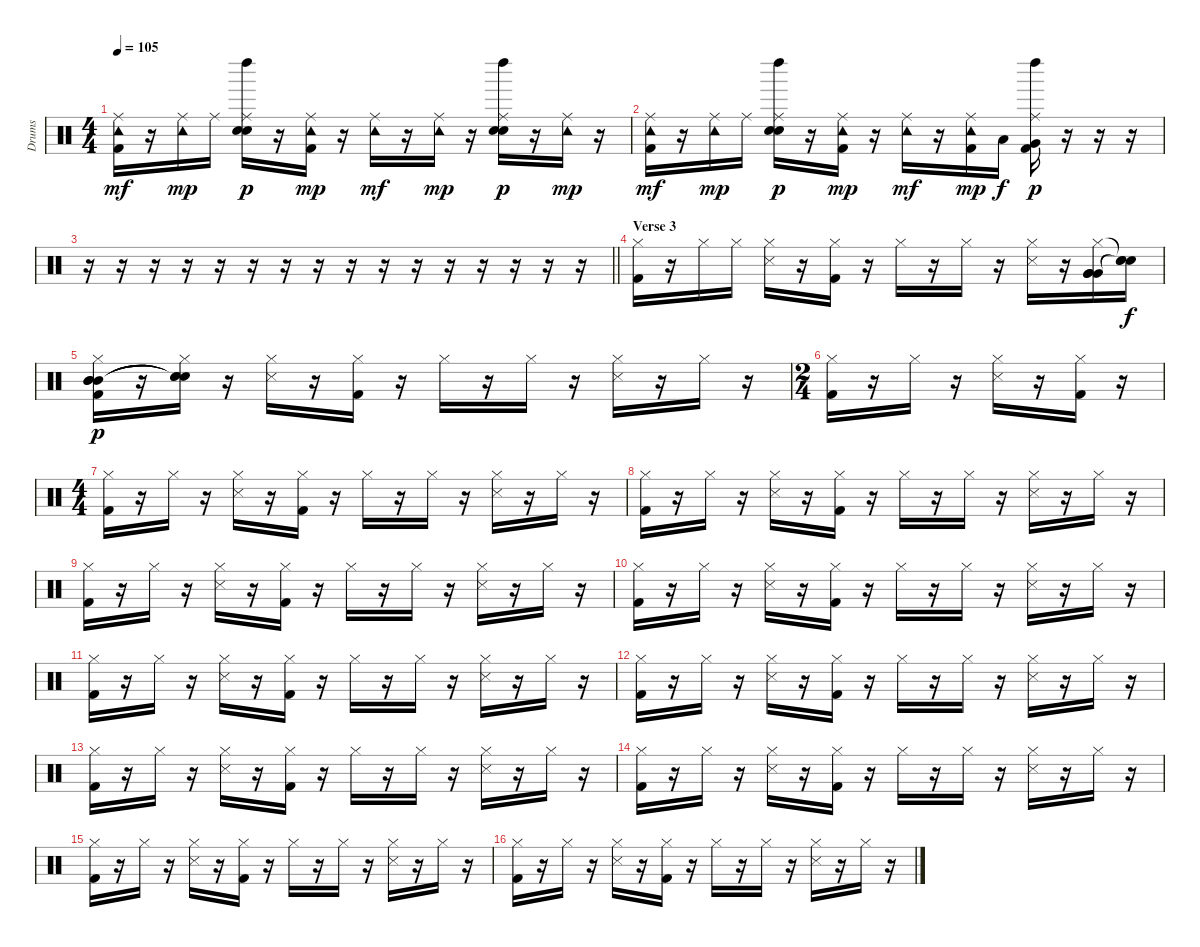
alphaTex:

\track ("Drums" "Drums") {instrument percussion}
\staff {score}
\articulation defaults
\ts (4 4)
\tempo 105
\clef neutral
\ks c
("Ride (middle)" "Tambourine (hit)" "Kick (hit) 2").16{dy mf} r.16 ("Ride (middle)" "Tambourine (hit)").16{dy mp} "Ride (middle)".16 ("Ride (middle)" "Electric Snare (hit)" "Snare (hit) 2" "Left Maraca (hit)").16{dy p} r.16 ("Ride (middle)" "Tambourine (hit)" "Kick (hit) 2").16{dy mp} r.16 ("Ride (middle)" "Tambourine (hit)").16{dy mf} r.16 ("Ride (middle)" "Tambourine (hit)").16{dy mp} r.16 ("Ride (middle)" "Electric Snare (hit)" "Snare (hit) 2" "Left Maraca (hit)").16{dy p} r.16 ("Ride (middle)" "Tambourine (hit)").16{dy mp} r.16 |
("Ride (middle)" "Tambourine (hit)" "Kick (hit) 2").16{dy mf} r.16 ("Ride (middle)" "Tambourine (hit)").16{dy mp} "Ride (middle)".16 ("Ride (middle)" "Electric Snare (hit)" "Snare (hit) 2" "Left Maraca (hit)").16{dy p} r.16 ("Ride (middle)" "Tambourine (hit)" "Kick (hit) 2").16{dy mp} r.16 ("Ride (middle)" "Tambourine (hit)").16{dy mf} r.16 ("Ride (middle)" "Tambourine (hit)" "Kick (hit) 2").16{dy mp} "Low Tom (hit)".16{dy f} ("Ride (middle)" "Very Low Tom (hit)" "Left Maraca (hit)" "Kick (hit) 2").16{dy p} r.16 r.16 r.16 |
\barLineRight lightlight
r.16 r.16 r.16 r.16 r.16 r.16 r.16 r.16 r.16 r.16 r.16 r.16 r.16 r.16 r.16 r.16 |
\section ("" "Verse 3")
("Hi-Hat (closed)" "Kick (hit) 2").16 r.16 "Hi-Hat (closed)".16 "Hi-Hat (closed)".16 ("Hi-Hat (closed)" "Snare (side stick) 3").16 r.16 ("Hi-Hat (closed)" "Kick (hit) 2").16 r.16 "Hi-Hat (closed)".16 r.16 "Hi-Hat (closed)".16 r.16 ("Hi-Hat (closed)" "Snare (side stick) 3").16 r.16 ("Hi-Hat (closed)" "Very Low Tom (hit)" "Very Low Tom (hit)" "Very Low Tom (hit)").16 ("Snare (hit)"{t} "Snare (hit)"{t} "Snare (hit)"{t}).16{dy f} |
("Hi-Hat (closed)" "Mid Tom (hit)" "Mid Tom (hit)" "Mid Tom (hit)" "Kick (hit) 2").16{dy p} r.16 ("Hi-Hat (closed)" "Snare (hit)"{t} "Snare (hit)"{t} "Snare (hit)"{t}).16 r.16 ("Hi-Hat (closed)" "Snare (side stick) 3").16 r.16 ("Hi-Hat (closed)" "Kick (hit) 2").16 r.16 "Hi-Hat (closed)".16 r.16 "Hi-Hat (closed)".16 r.16 ("Hi-Hat (closed)" "Snare (side stick) 3").16 r.16 "Hi-Hat (closed)".16 r.16 |
\ts (2 4)
("Hi-Hat (closed)" "Kick (hit) 2").16 r.16 "Hi-Hat (closed)".16 r.16 ("Hi-Hat (closed)" "Snare (side stick) 3").16 r.16 ("Hi-Hat (closed)" "Kick (hit) 2").16 r.16 |
\ts (4 4)
("Hi-Hat (closed)" "Kick (hit) 2").16 r.16 "Hi-Hat (closed)".16 r.16 ("Hi-Hat (closed)" "Snare (side stick) 3").16 r.16 ("Hi-Hat (closed)" "Kick (hit) 2").16 r.16 "Hi-Hat (closed)".16 r.16 "Hi-Hat (closed)".16 r.16 ("Hi-Hat (closed)" "Snare (side stick) 3").16 r.16 "Hi-Hat (closed)".16 r.16 |
("Hi-Hat (closed)" "Kick (hit) 2").16 r.16 "Hi-Hat (closed)".16 r.16 ("Hi-Hat (closed)" "Snare (side stick) 3").16 r.16 ("Hi-Hat (closed)" "Kick (hit) 2").16 r.16 "Hi-Hat (closed)".16 r.16 "Hi-Hat (closed)".16 r.16 ("Hi-Hat (closed)" "Snare (side stick) 3").16 r.16 "Hi-Hat (closed)".16 r.16 |
("Hi-Hat (closed)" "Kick (hit) 2").16 r.16 "Hi-Hat (closed)".16 r.16 ("Hi-Hat (closed)" "Snare (side stick) 3").16 r.16 ("Hi-Hat (closed)" "Kick (hit) 2").16 r.16 "Hi-Hat (closed)".16 r.16 "Hi-Hat (closed)".16 r.16 ("Hi-Hat (closed)" "Snare (side stick) 3").16 r.16 "Hi-Hat (closed)".16 r.16 |
("Hi-Hat (closed)" "Kick (hit) 2").16 r.16 "Hi-Hat (closed)".16 r.16 ("Hi-Hat (closed)" "Snare (side stick) 3").16 r.16 ("Hi-Hat (closed)" "Kick (hit) 2").16 r.16 "Hi-Hat (closed)".16 r.16 "Hi-Hat (closed)".16 r.16 ("Hi-Hat (closed)" "Snare (side stick) 3").16 r.16 "Hi-Hat (closed)".16 r.16 |
("Hi-Hat (closed)" "Kick (hit) 2").16 r.16 "Hi-Hat (closed)".16 r.16 ("Hi-Hat (closed)" "Snare (side stick) 3").16 r.16 ("Hi-Hat (closed)" "Kick (hit) 2").16 r.16 "Hi-Hat (closed)".16 r.16 "Hi-Hat (closed)".16 r.16 ("Hi-Hat (closed)" "Snare (side stick) 3").16 r.16 "Hi-Hat (closed)".16 r.16 |
("Hi-Hat (closed)" "Kick (hit) 2").16 r.16 "Hi-Hat (closed)".16 r.16 ("Hi-Hat (closed)" "Snare (side stick) 3").16 r.16 ("Hi-Hat (closed)" "Kick (hit) 2").16 r.16 "Hi-Hat (closed)".16 r.16 "Hi-Hat (closed)".16 r.16 ("Hi-Hat (closed)" "Snare (side stick) 3").16 r.16 "Hi-Hat (closed)".16 r.16 |
("Hi-Hat (closed)" "Kick (hit) 2").16 r.16 "Hi-Hat (closed)".16 r.16 ("Hi-Hat (closed)" "Snare (side stick) 3").16 r.16 ("Hi-Hat (closed)" "Kick (hit) 2").16 r.16 "Hi-Hat (closed)".16 r.16 "Hi-Hat (closed)".16 r.16 ("Hi-Hat (closed)" "Snare (side stick) 3").16 r.16 "Hi-Hat (closed)".16 r.16 |
("Hi-Hat (closed)" "Kick (hit) 2").16 r.16 "Hi-Hat (closed)".16 r.16 ("Hi-Hat (closed)" "Snare (side stick) 3").16 r.16 ("Hi-Hat (closed)" "Kick (hit) 2").16 r.16 "Hi-Hat (closed)".16 r.16 "Hi-Hat (closed)".16 r.16 ("Hi-Hat (closed)" "Snare (side stick) 3").16 r.16 "Hi-Hat (closed)".16 r.16 |
("Hi-Hat (closed)" "Kick (hit) 2").16 r.16 "Hi-Hat (closed)".16 r.16 ("Hi-Hat (closed)" "Snare (side stick) 3").16 r.16 ("Hi-Hat (closed)" "Kick (hit) 2").16 r.16 "Hi-Hat (closed)".16 r.16 "Hi-Hat (closed)".16 r.16 ("Hi-Hat (closed)" "Snare (side stick) 3").16 r.16 "Hi-Hat (closed)".16 r.16 |
("Hi-Hat (closed)" "Kick (hit) 2").16 r.16 "Hi-Hat (closed)".16 r.16 ("Hi-Hat (closed)" "Snare (side stick) 3").16 r.16 ("Hi-Hat (closed)" "Kick (hit) 2").16 r.16 "Hi-Hat (closed)".16 r.16 "Hi-Hat (closed)".16 r.16 ("Hi-Hat (closed)" "Snare (side stick) 3").16 r.16 "Hi-Hat (closed)".16 r.16
